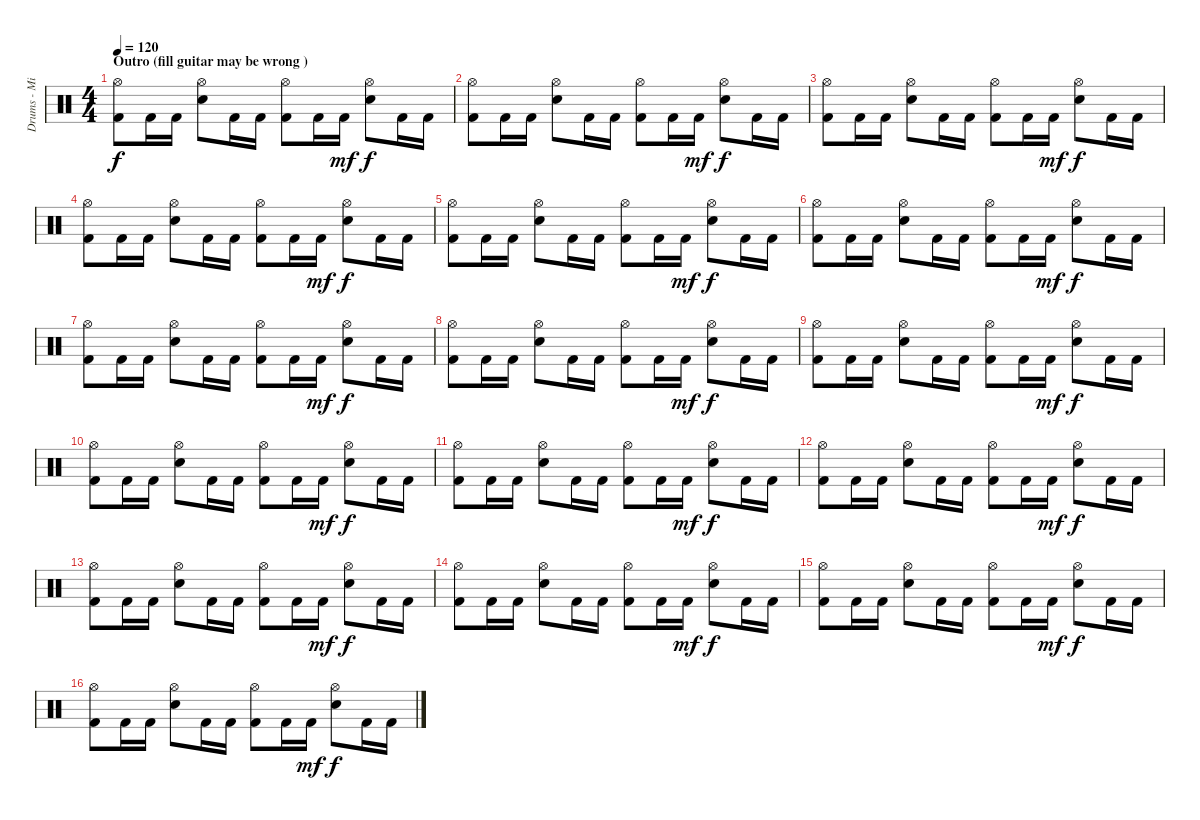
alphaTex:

\track ("Drums - Mikko" "Drums - Mi") {instrument percussion}
\staff {score}
\articulation defaults
\ts (4 4)
\section ("" "Outro (fill guitar may be wrong )")
\tempo 120
\clef neutral
\ks c
("Hi-Hat (open)" "Kick (hit) 2").8{dy f volume 14} "Kick (hit) 2".16 "Kick (hit) 2".16 ("Hi-Hat (open)" "Snare (hit) 2").8 "Kick (hit) 2".16 "Kick (hit) 2".16 ("Hi-Hat (open)" "Kick (hit) 2").8 "Kick (hit) 2".16 "Kick (hit) 2".16{dy mf} ("Hi-Hat (open)" "Snare (hit) 2").8{dy f} "Kick (hit) 2".16 "Kick (hit) 2".16 |
("Hi-Hat (open)" "Kick (hit) 2").8{volume 14} "Kick (hit) 2".16 "Kick (hit) 2".16 ("Hi-Hat (open)" "Snare (hit) 2").8 "Kick (hit) 2".16 "Kick (hit) 2".16 ("Hi-Hat (open)" "Kick (hit) 2").8 "Kick (hit) 2".16 "Kick (hit) 2".16{dy mf} ("Hi-Hat (open)" "Snare (hit) 2").8{dy f} "Kick (hit) 2".16 "Kick (hit) 2".16 |
("Hi-Hat (open)" "Kick (hit) 2").8{volume 14} "Kick (hit) 2".16 "Kick (hit) 2".16 ("Hi-Hat (open)" "Snare (hit) 2").8 "Kick (hit) 2".16 "Kick (hit) 2".16 ("Hi-Hat (open)" "Kick (hit) 2").8 "Kick (hit) 2".16 "Kick (hit) 2".16{dy mf} ("Hi-Hat (open)" "Snare (hit) 2").8{dy f} "Kick (hit) 2".16 "Kick (hit) 2".16 |
("Hi-Hat (open)" "Kick (hit) 2").8{volume 14} "Kick (hit) 2".16 "Kick (hit) 2".16 ("Hi-Hat (open)" "Snare (hit) 2").8 "Kick (hit) 2".16 "Kick (hit) 2".16 ("Hi-Hat (open)" "Kick (hit) 2").8 "Kick (hit) 2".16 "Kick (hit) 2".16{dy mf} ("Hi-Hat (open)" "Snare (hit) 2").8{dy f} "Kick (hit) 2".16 "Kick (hit) 2".16 |
("Hi-Hat (open)" "Kick (hit) 2").8{volume 14} "Kick (hit) 2".16 "Kick (hit) 2".16 ("Hi-Hat (open)" "Snare (hit) 2").8 "Kick (hit) 2".16 "Kick (hit) 2".16 ("Hi-Hat (open)" "Kick (hit) 2").8 "Kick (hit) 2".16 "Kick (hit) 2".16{dy mf} ("Hi-Hat (open)" "Snare (hit) 2").8{dy f} "Kick (hit) 2".16 "Kick (hit) 2".16 |
("Hi-Hat (open)" "Kick (hit) 2").8{volume 14} "Kick (hit) 2".16 "Kick (hit) 2".16 ("Hi-Hat (open)" "Snare (hit) 2").8 "Kick (hit) 2".16 "Kick (hit) 2".16 ("Hi-Hat (open)" "Kick (hit) 2").8 "Kick (hit) 2".16 "Kick (hit) 2".16{dy mf} ("Hi-Hat (open)" "Snare (hit) 2").8{dy f} "Kick (hit) 2".16 "Kick (hit) 2".16 |
("Hi-Hat (open)" "Kick (hit) 2").8{volume 14} "Kick (hit) 2".16 "Kick (hit) 2".16 ("Hi-Hat (open)" "Snare (hit) 2").8 "Kick (hit) 2".16 "Kick (hit) 2".16 ("Hi-Hat (open)" "Kick (hit) 2").8 "Kick (hit) 2".16 "Kick (hit) 2".16{dy mf} ("Hi-Hat (open)" "Snare (hit) 2").8{dy f} "Kick (hit) 2".16 "Kick (hit) 2".16 |
("Hi-Hat (open)" "Kick (hit) 2").8{volume 14} "Kick (hit) 2".16 "Kick (hit) 2".16 ("Hi-Hat (open)" "Snare (hit) 2").8 "Kick (hit) 2".16 "Kick (hit) 2".16 ("Hi-Hat (open)" "Kick (hit) 2").8 "Kick (hit) 2".16 "Kick (hit) 2".16{dy mf} ("Hi-Hat (open)" "Snare (hit) 2").8{dy f} "Kick (hit) 2".16 "Kick (hit) 2".16 |
("Hi-Hat (open)" "Kick (hit) 2").8{volume 14} "Kick (hit) 2".16 "Kick (hit) 2".16 ("Hi-Hat (open)" "Snare (hit) 2").8 "Kick (hit) 2".16 "Kick (hit) 2".16 ("Hi-Hat (open)" "Kick (hit) 2").8 "Kick (hit) 2".16 "Kick (hit) 2".16{dy mf} ("Hi-Hat (open)" "Snare (hit) 2").8{dy f} "Kick (hit) 2".16 "Kick (hit) 2".16 |
("Hi-Hat (open)" "Kick (hit) 2").8{volume 14} "Kick (hit) 2".16 "Kick (hit) 2".16 ("Hi-Hat (open)" "Snare (hit) 2").8 "Kick (hit) 2".16 "Kick (hit) 2".16 ("Hi-Hat (open)" "Kick (hit) 2").8 "Kick (hit) 2".16 "Kick (hit) 2".16{dy mf} ("Hi-Hat (open)" "Snare (hit) 2").8{dy f} "Kick (hit) 2".16 "Kick (hit) 2".16 |
("Hi-Hat (open)" "Kick (hit) 2").8{volume 14} "Kick (hit) 2".16 "Kick (hit) 2".16 ("Hi-Hat (open)" "Snare (hit) 2").8 "Kick (hit) 2".16 "Kick (hit) 2".16 ("Hi-Hat (open)" "Kick (hit) 2").8 "Kick (hit) 2".16 "Kick (hit) 2".16{dy mf} ("Hi-Hat (open)" "Snare (hit) 2").8{dy f} "Kick (hit) 2".16 "Kick (hit) 2".16 |
("Hi-Hat (open)" "Kick (hit) 2").8{volume 14} "Kick (hit) 2".16 "Kick (hit) 2".16 ("Hi-Hat (open)" "Snare (hit) 2").8 "Kick (hit) 2".16 "Kick (hit) 2".16 ("Hi-Hat (open)" "Kick (hit) 2").8 "Kick (hit) 2".16 "Kick (hit) 2".16{dy mf} ("Hi-Hat (open)" "Snare (hit) 2").8{dy f} "Kick (hit) 2".16 "Kick (hit) 2".16 |
("Hi-Hat (open)" "Kick (hit) 2").8{volume 14} "Kick (hit) 2".16 "Kick (hit) 2".16 ("Hi-Hat (open)" "Snare (hit) 2").8 "Kick (hit) 2".16 "Kick (hit) 2".16 ("Hi-Hat (open)" "Kick (hit) 2").8 "Kick (hit) 2".16 "Kick (hit) 2".16{dy mf} ("Hi-Hat (open)" "Snare (hit) 2").8{dy f} "Kick (hit) 2".16 "Kick (hit) 2".16 |
("Hi-Hat (open)" "Kick (hit) 2").8{volume 14} "Kick (hit) 2".16 "Kick (hit) 2".16 ("Hi-Hat (open)" "Snare (hit) 2").8 "Kick (hit) 2".16 "Kick (hit) 2".16 ("Hi-Hat (open)" "Kick (hit) 2").8 "Kick (hit) 2".16 "Kick (hit) 2".16{dy mf} ("Hi-Hat (open)" "Snare (hit) 2").8{dy f} "Kick (hit) 2".16 "Kick (hit) 2".16 |
("Hi-Hat (open)" "Kick (hit) 2").8{volume 14} "Kick (hit) 2".16 "Kick (hit) 2".16 ("Hi-Hat (open)" "Snare (hit) 2").8 "Kick (hit) 2".16 "Kick (hit) 2".16 ("Hi-Hat (open)" "Kick (hit) 2").8 "Kick (hit) 2".16 "Kick (hit) 2".16{dy mf} ("Hi-Hat (open)" "Snare (hit) 2").8{dy f} "Kick (hit) 2".16 "Kick (hit) 2".16 |
("Hi-Hat (open)" "Kick (hit) 2").8{volume 14} "Kick (hit) 2".16 "Kick (hit) 2".16 ("Hi-Hat (open)" "Snare (hit) 2").8 "Kick (hit) 2".16 "Kick (hit) 2".16 ("Hi-Hat (open)" "Kick (hit) 2").8 "Kick (hit) 2".16 "Kick (hit) 2".16{dy mf} ("Hi-Hat (open)" "Snare (hit) 2").8{dy f} "Kick (hit) 2".16 "Kick (hit) 2".16
